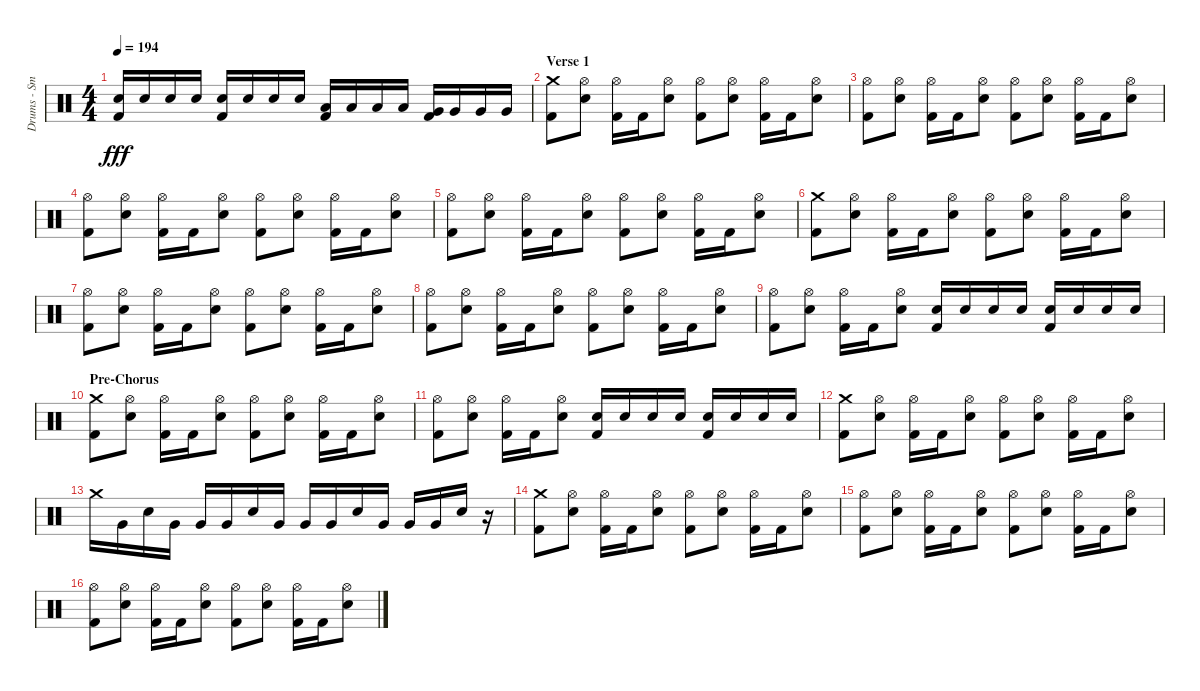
\track ("Drums - Smelly" "Drums - Sm") {instrument percussion}
\staff {score}
\articulation defaults
\ts (4 4)
\tempo 194
\clef neutral
\ks c
("Electric Snare (hit)" "Kick (hit) 2").16{dy fff} "Electric Snare (hit)".16 "Electric Snare (hit)".16 "Electric Snare (hit)".16 ("Electric Snare (hit)" "Kick (hit) 2").16 "Electric Snare (hit)".16 "Electric Snare (hit)".16 "Electric Snare (hit)".16 ("Low Tom (hit)" "Kick (hit) 2").16 "Low Tom (hit)".16 "Low Tom (hit)".16 "Low Tom (hit)".16 ("Very Low Tom (hit)" "Kick (hit) 2").16 "Very Low Tom (hit)".16 "Very Low Tom (hit)".16 "Very Low Tom (hit)".16 |
\section ("" "Verse 1")
("Kick (hit) 2" "Crash medium (hit)").8 ("Electric Snare (hit)" "Hi-Hat (open)").8 ("Kick (hit) 2" "Hi-Hat (open)").16 "Kick (hit) 2".16 ("Electric Snare (hit)" "Hi-Hat (open)").8 ("Kick (hit) 2" "Hi-Hat (open)").8 ("Electric Snare (hit)" "Hi-Hat (open)").8 ("Kick (hit) 2" "Hi-Hat (open)").16 "Kick (hit) 2".16 ("Electric Snare (hit)" "Hi-Hat (open)").8 |
("Kick (hit) 2" "Hi-Hat (open)").8 ("Electric Snare (hit)" "Hi-Hat (open)").8 ("Kick (hit) 2" "Hi-Hat (open)").16 "Kick (hit) 2".16 ("Electric Snare (hit)" "Hi-Hat (open)").8 ("Kick (hit) 2" "Hi-Hat (open)").8 ("Electric Snare (hit)" "Hi-Hat (open)").8 ("Kick (hit) 2" "Hi-Hat (open)").16 "Kick (hit) 2".16 ("Electric Snare (hit)" "Hi-Hat (open)").8 |
("Kick (hit) 2" "Hi-Hat (open)").8 ("Electric Snare (hit)" "Hi-Hat (open)").8 ("Kick (hit) 2" "Hi-Hat (open)").16 "Kick (hit) 2".16 ("Electric Snare (hit)" "Hi-Hat (open)").8 ("Kick (hit) 2" "Hi-Hat (open)").8 ("Electric Snare (hit)" "Hi-Hat (open)").8 ("Kick (hit) 2" "Hi-Hat (open)").16 "Kick (hit) 2".16 ("Electric Snare (hit)" "Hi-Hat (open)").8 |
("Kick (hit) 2" "Hi-Hat (open)").8 ("Electric Snare (hit)" "Hi-Hat (open)").8 ("Kick (hit) 2" "Hi-Hat (open)").16 "Kick (hit) 2".16 ("Electric Snare (hit)" "Hi-Hat (open)").8 ("Kick (hit) 2" "Hi-Hat (open)").8 ("Electric Snare (hit)" "Hi-Hat (open)").8 ("Kick (hit) 2" "Hi-Hat (open)").16 "Kick (hit) 2".16 ("Electric Snare (hit)" "Hi-Hat (open)").8 |
("Kick (hit) 2" "Crash medium (hit)").8 ("Electric Snare (hit)" "Hi-Hat (open)").8 ("Kick (hit) 2" "Hi-Hat (open)").16 "Kick (hit) 2".16 ("Electric Snare (hit)" "Hi-Hat (open)").8 ("Kick (hit) 2" "Hi-Hat (open)").8 ("Electric Snare (hit)" "Hi-Hat (open)").8 ("Kick (hit) 2" "Hi-Hat (open)").16 "Kick (hit) 2".16 ("Electric Snare (hit)" "Hi-Hat (open)").8 |
("Kick (hit) 2" "Hi-Hat (open)").8 ("Electric Snare (hit)" "Hi-Hat (open)").8 ("Kick (hit) 2" "Hi-Hat (open)").16 "Kick (hit) 2".16 ("Electric Snare (hit)" "Hi-Hat (open)").8 ("Kick (hit) 2" "Hi-Hat (open)").8 ("Electric Snare (hit)" "Hi-Hat (open)").8 ("Kick (hit) 2" "Hi-Hat (open)").16 "Kick (hit) 2".16 ("Electric Snare (hit)" "Hi-Hat (open)").8 |
("Kick (hit) 2" "Hi-Hat (open)").8 ("Electric Snare (hit)" "Hi-Hat (open)").8 ("Kick (hit) 2" "Hi-Hat (open)").16 "Kick (hit) 2".16 ("Electric Snare (hit)" "Hi-Hat (open)").8 ("Kick (hit) 2" "Hi-Hat (open)").8 ("Electric Snare (hit)" "Hi-Hat (open)").8 ("Kick (hit) 2" "Hi-Hat (open)").16 "Kick (hit) 2".16 ("Electric Snare (hit)" "Hi-Hat (open)").8 |
("Kick (hit) 2" "Hi-Hat (open)").8 ("Electric Snare (hit)" "Hi-Hat (open)").8 ("Kick (hit) 2" "Hi-Hat (open)").16 "Kick (hit) 2".16 ("Electric Snare (hit)" "Hi-Hat (open)").8 ("Electric Snare (hit)" "Kick (hit) 2").16 "Electric Snare (hit)".16 "Electric Snare (hit)".16 "Electric Snare (hit)".16 ("Electric Snare (hit)" "Kick (hit) 2").16 "Electric Snare (hit)".16 "Electric Snare (hit)".16 "Electric Snare (hit)".16 |
\section ("" "Pre-Chorus")
("Kick (hit) 2" "Crash medium (hit)").8 ("Electric Snare (hit)" "Hi-Hat (open)").8 ("Kick (hit) 2" "Hi-Hat (open)").16 "Kick (hit) 2".16 ("Electric Snare (hit)" "Hi-Hat (open)").8 ("Kick (hit) 2" "Hi-Hat (open)").8 ("Electric Snare (hit)" "Hi-Hat (open)").8 ("Kick (hit) 2" "Hi-Hat (open)").16 "Kick (hit) 2".16 ("Electric Snare (hit)" "Hi-Hat (open)").8 |
("Kick (hit) 2" "Hi-Hat (open)").8 ("Electric Snare (hit)" "Hi-Hat (open)").8 ("Kick (hit) 2" "Hi-Hat (open)").16 "Kick (hit) 2".16 ("Electric Snare (hit)" "Hi-Hat (open)").8 ("Electric Snare (hit)" "Kick (hit) 2").16 "Electric Snare (hit)".16 "Electric Snare (hit)".16 "Electric Snare (hit)".16 ("Electric Snare (hit)" "Kick (hit) 2").16 "Electric Snare (hit)".16 "Electric Snare (hit)".16 "Electric Snare (hit)".16 |
("Kick (hit) 2" "Crash medium (hit)").8 ("Electric Snare (hit)" "Hi-Hat (open)").8 ("Kick (hit) 2" "Hi-Hat (open)").16 "Kick (hit) 2".16 ("Electric Snare (hit)" "Hi-Hat (open)").8 ("Kick (hit) 2" "Hi-Hat (open)").8 ("Electric Snare (hit)" "Hi-Hat (open)").8 ("Kick (hit) 2" "Hi-Hat (open)").16 "Kick (hit) 2".16 ("Electric Snare (hit)" "Hi-Hat (open)").8 |
"Crash medium (hit)".16 "Very Low Tom (hit)".16 "Electric Snare (hit)".16 "Very Low Tom (hit)".16 "Very Low Tom (hit)".16 "Very Low Tom (hit)".16 "Electric Snare (hit)".16 "Very Low Tom (hit)".16 "Very Low Tom (hit)".16 "Very Low Tom (hit)".16 "Electric Snare (hit)".16 "Very Low Tom (hit)".16 "Very Low Tom (hit)".16 "Very Low Tom (hit)".16 "Electric Snare (hit)".16 r.16 |
("Kick (hit) 2" "Crash medium (hit)").8 ("Electric Snare (hit)" "Hi-Hat (open)").8 ("Kick (hit) 2" "Hi-Hat (open)").16 "Kick (hit) 2".16 ("Electric Snare (hit)" "Hi-Hat (open)").8 ("Kick (hit) 2" "Hi-Hat (open)").8 ("Electric Snare (hit)" "Hi-Hat (open)").8 ("Kick (hit) 2" "Hi-Hat (open)").16 "Kick (hit) 2".16 ("Electric Snare (hit)" "Hi-Hat (open)").8 |
("Kick (hit) 2" "Hi-Hat (open)").8 ("Electric Snare (hit)" "Hi-Hat (open)").8 ("Kick (hit) 2" "Hi-Hat (open)").16 "Kick (hit) 2".16 ("Electric Snare (hit)" "Hi-Hat (open)").8 ("Kick (hit) 2" "Hi-Hat (open)").8 ("Electric Snare (hit)" "Hi-Hat (open)").8 ("Kick (hit) 2" "Hi-Hat (open)").16 "Kick (hit) 2".16 ("Electric Snare (hit)" "Hi-Hat (open)").8 |
("Kick (hit) 2" "Hi-Hat (open)").8 ("Electric Snare (hit)" "Hi-Hat (open)").8 ("Kick (hit) 2" "Hi-Hat (open)").16 "Kick (hit) 2".16 ("Electric Snare (hit)" "Hi-Hat (open)").8 ("Kick (hit) 2" "Hi-Hat (open)").8 ("Electric Snare (hit)" "Hi-Hat (open)").8 ("Kick (hit) 2" "Hi-Hat (open)").16 "Kick (hit) 2".16 ("Electric Snare (hit)" "Hi-Hat (open)").8
